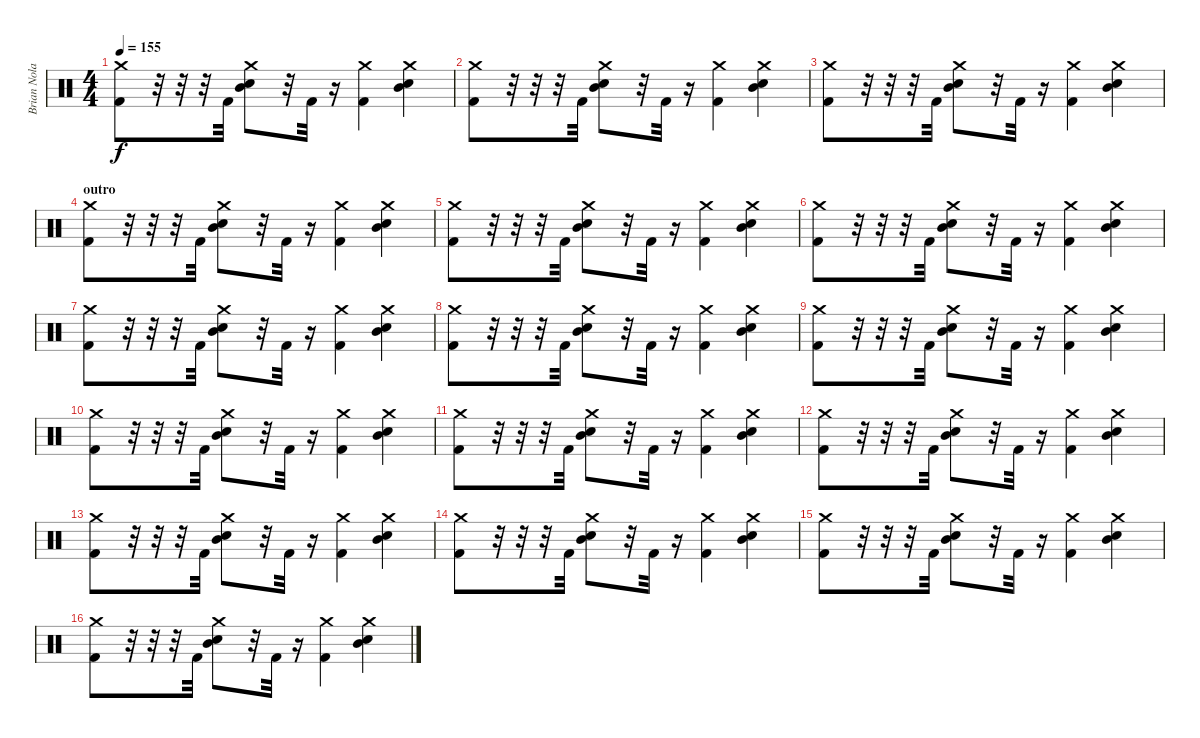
\track ("Brian Nolan" "Brian Nola") {instrument percussion}
\staff {score}
\articulation defaults
\ts (4 4)
\tempo 155
\clef neutral
\ks c
("Crash medium (hit)" "Kick (hit) 2").8{dy f} r.32 r.32 r.32 "Kick (hit) 2".32 ("Snare (hit) 2" "Mid Tom (hit)" "Crash medium (hit)").8 r.32 "Kick (hit) 2".32 r.16 ("Crash medium (hit)" "Kick (hit) 2").4 ("Snare (hit) 2" "Mid Tom (hit)" "Crash medium (hit)").4 |
("Crash medium (hit)" "Kick (hit) 2").8 r.32 r.32 r.32 "Kick (hit) 2".32 ("Snare (hit) 2" "Mid Tom (hit)" "Crash medium (hit)").8 r.32 "Kick (hit) 2".32 r.16 ("Crash medium (hit)" "Kick (hit) 2").4 ("Snare (hit) 2" "Mid Tom (hit)" "Crash medium (hit)").4 |
("Crash medium (hit)" "Kick (hit) 2").8 r.32 r.32 r.32 "Kick (hit) 2".32 ("Snare (hit) 2" "Mid Tom (hit)" "Crash medium (hit)").8 r.32 "Kick (hit) 2".32 r.16 ("Crash medium (hit)" "Kick (hit) 2").4 ("Snare (hit) 2" "Mid Tom (hit)" "Crash medium (hit)").4 |
\section ("" "outro")
("Crash medium (hit)" "Kick (hit) 2").8 r.32 r.32 r.32 "Kick (hit) 2".32 ("Snare (hit) 2" "Mid Tom (hit)" "Crash medium (hit)").8 r.32 "Kick (hit) 2".32 r.16 ("Crash medium (hit)" "Kick (hit) 2").4 ("Snare (hit) 2" "Mid Tom (hit)" "Crash medium (hit)").4 |
("Crash medium (hit)" "Kick (hit) 2").8 r.32 r.32 r.32 "Kick (hit) 2".32 ("Snare (hit) 2" "Mid Tom (hit)" "Crash medium (hit)").8 r.32 "Kick (hit) 2".32 r.16 ("Crash medium (hit)" "Kick (hit) 2").4 ("Snare (hit) 2" "Mid Tom (hit)" "Crash medium (hit)").4 |
("Crash medium (hit)" "Kick (hit) 2").8 r.32 r.32 r.32 "Kick (hit) 2".32 ("Snare (hit) 2" "Mid Tom (hit)" "Crash medium (hit)").8 r.32 "Kick (hit) 2".32 r.16 ("Crash medium (hit)" "Kick (hit) 2").4 ("Snare (hit) 2" "Mid Tom (hit)" "Crash medium (hit)").4 |
("Crash medium (hit)" "Kick (hit) 2").8 r.32 r.32 r.32 "Kick (hit) 2".32 ("Snare (hit) 2" "Mid Tom (hit)" "Crash medium (hit)").8 r.32 "Kick (hit) 2".32 r.16 ("Crash medium (hit)" "Kick (hit) 2").4 ("Snare (hit) 2" "Mid Tom (hit)" "Crash medium (hit)").4 |
("Crash medium (hit)" "Kick (hit) 2").8 r.32 r.32 r.32 "Kick (hit) 2".32 ("Snare (hit) 2" "Mid Tom (hit)" "Crash medium (hit)").8 r.32 "Kick (hit) 2".32 r.16 ("Crash medium (hit)" "Kick (hit) 2").4 ("Snare (hit) 2" "Mid Tom (hit)" "Crash medium (hit)").4 |
("Crash medium (hit)" "Kick (hit) 2").8 r.32 r.32 r.32 "Kick (hit) 2".32 ("Snare (hit) 2" "Mid Tom (hit)" "Crash medium (hit)").8 r.32 "Kick (hit) 2".32 r.16 ("Crash medium (hit)" "Kick (hit) 2").4 ("Snare (hit) 2" "Mid Tom (hit)" "Crash medium (hit)").4 |
("Crash medium (hit)" "Kick (hit) 2").8 r.32 r.32 r.32 "Kick (hit) 2".32 ("Snare (hit) 2" "Mid Tom (hit)" "Crash medium (hit)").8 r.32 "Kick (hit) 2".32 r.16 ("Crash medium (hit)" "Kick (hit) 2").4 ("Snare (hit) 2" "Mid Tom (hit)" "Crash medium (hit)").4 |
("Crash medium (hit)" "Kick (hit) 2").8 r.32 r.32 r.32 "Kick (hit) 2".32 ("Snare (hit) 2" "Mid Tom (hit)" "Crash medium (hit)").8 r.32 "Kick (hit) 2".32 r.16 ("Crash medium (hit)" "Kick (hit) 2").4 ("Snare (hit) 2" "Mid Tom (hit)" "Crash medium (hit)").4 |
("Crash medium (hit)" "Kick (hit) 2").8 r.32 r.32 r.32 "Kick (hit) 2".32 ("Snare (hit) 2" "Mid Tom (hit)" "Crash medium (hit)").8 r.32 "Kick (hit) 2".32 r.16 ("Crash medium (hit)" "Kick (hit) 2").4 ("Snare (hit) 2" "Mid Tom (hit)" "Crash medium (hit)").4 |
("Crash medium (hit)" "Kick (hit) 2").8 r.32 r.32 r.32 "Kick (hit) 2".32 ("Snare (hit) 2" "Mid Tom (hit)" "Crash medium (hit)").8 r.32 "Kick (hit) 2".32 r.16 ("Crash medium (hit)" "Kick (hit) 2").4 ("Snare (hit) 2" "Mid Tom (hit)" "Crash medium (hit)").4 |
("Crash medium (hit)" "Kick (hit) 2").8 r.32 r.32 r.32 "Kick (hit) 2".32 ("Snare (hit) 2" "Mid Tom (hit)" "Crash medium (hit)").8 r.32 "Kick (hit) 2".32 r.16 ("Crash medium (hit)" "Kick (hit) 2").4 ("Snare (hit) 2" "Mid Tom (hit)" "Crash medium (hit)").4 |
("Crash medium (hit)" "Kick (hit) 2").8 r.32 r.32 r.32 "Kick (hit) 2".32 ("Snare (hit) 2" "Mid Tom (hit)" "Crash medium (hit)").8 r.32 "Kick (hit) 2".32 r.16 ("Crash medium (hit)" "Kick (hit) 2").4 ("Snare (hit) 2" "Mid Tom (hit)" "Crash medium (hit)").4 |
("Crash medium (hit)" "Kick (hit) 2").8 r.32 r.32 r.32 "Kick (hit) 2".32 ("Snare (hit) 2" "Mid Tom (hit)" "Crash medium (hit)").8 r.32 "Kick (hit) 2".32 r.16 ("Crash medium (hit)" "Kick (hit) 2").4 ("Snare (hit) 2" "Mid Tom (hit)" "Crash medium (hit)").4
